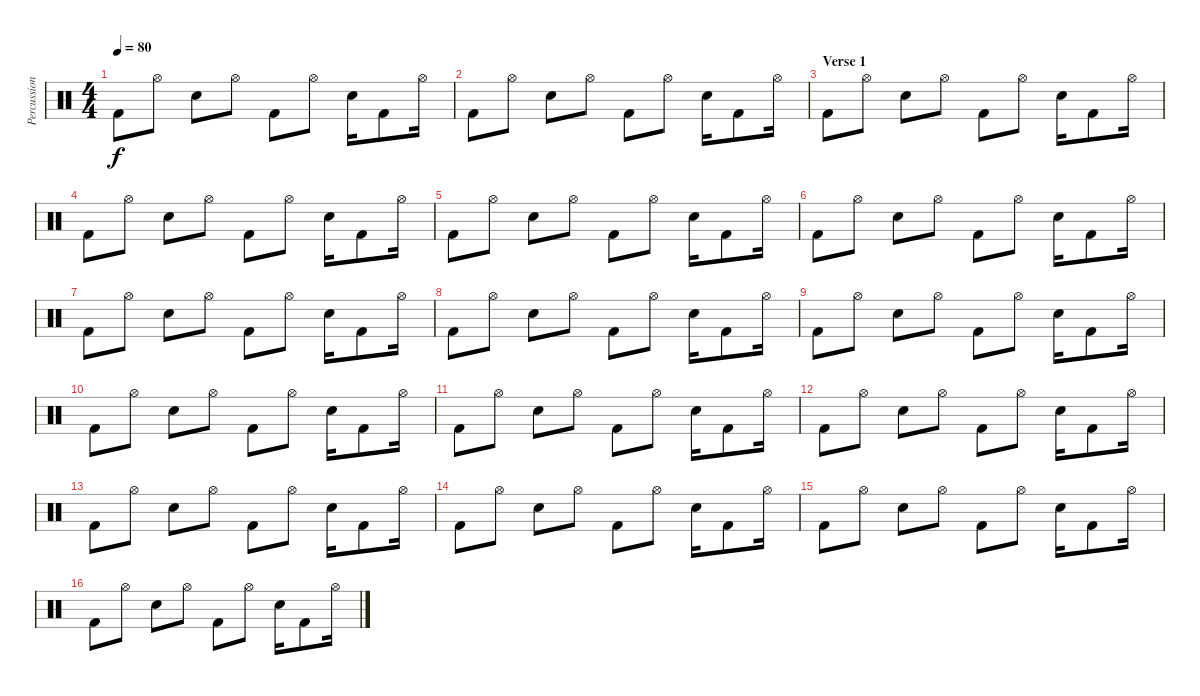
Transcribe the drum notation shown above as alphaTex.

\track ("Percussion" "Percussion") {instrument percussion}
\staff {score}
\articulation defaults
\ts (4 4)
\tempo 80
\clef neutral
\ks c "Kick (hit) 2".8{dy f} "Hi-Hat (open)".8 "Electric Snare (hit)".8 "Hi-Hat (open)".8 "Kick (hit) 2".8 "Hi-Hat (open)".8 "Electric Snare (hit)".16 "Kick (hit) 2".8 "Hi-Hat (open)".16
|
"Kick (hit) 2".8 "Hi-Hat (open)".8 "Electric Snare (hit)".8 "Hi-Hat (open)".8 "Kick (hit) 2".8 "Hi-Hat (open)".8 "Electric Snare (hit)".16 "Kick (hit) 2".8 "Hi-Hat (open)".16 |
\section ("" "Verse 1")
"Kick (hit) 2".8 "Hi-Hat (open)".8 "Electric Snare (hit)".8 "Hi-Hat (open)".8 "Kick (hit) 2".8 "Hi-Hat (open)".8 "Electric Snare (hit)".16 "Kick (hit) 2".8 "Hi-Hat (open)".16 |
"Kick (hit) 2".8 "Hi-Hat (open)".8 "Electric Snare (hit)".8 "Hi-Hat (open)".8 "Kick (hit) 2".8 "Hi-Hat (open)".8 "Electric Snare (hit)".16 "Kick (hit) 2".8 "Hi-Hat (open)".16 |
"Kick (hit) 2".8 "Hi-Hat (open)".8 "Electric Snare (hit)".8 "Hi-Hat (open)".8 "Kick (hit) 2".8 "Hi-Hat (open)".8 "Electric Snare (hit)".16 "Kick (hit) 2".8 "Hi-Hat (open)".16 |
"Kick (hit) 2".8 "Hi-Hat (open)".8 "Electric Snare (hit)".8 "Hi-Hat (open)".8 "Kick (hit) 2".8 "Hi-Hat (open)".8 "Electric Snare (hit)".16 "Kick (hit) 2".8 "Hi-Hat (open)".16 |
"Kick (hit) 2".8 "Hi-Hat (open)".8 "Electric Snare (hit)".8 "Hi-Hat (open)".8 "Kick (hit) 2".8 "Hi-Hat (open)".8 "Electric Snare (hit)".16 "Kick (hit) 2".8 "Hi-Hat (open)".16 |
"Kick (hit) 2".8 "Hi-Hat (open)".8 "Electric Snare (hit)".8 "Hi-Hat (open)".8 "Kick (hit) 2".8 "Hi-Hat (open)".8 "Electric Snare (hit)".16 "Kick (hit) 2".8 "Hi-Hat (open)".16 |
"Kick (hit) 2".8 "Hi-Hat (open)".8 "Electric Snare (hit)".8 "Hi-Hat (open)".8 "Kick (hit) 2".8 "Hi-Hat (open)".8 "Electric Snare (hit)".16 "Kick (hit) 2".8 "Hi-Hat (open)".16 |
"Kick (hit) 2".8 "Hi-Hat (open)".8 "Electric Snare (hit)".8 "Hi-Hat (open)".8 "Kick (hit) 2".8 "Hi-Hat (open)".8 "Electric Snare (hit)".16 "Kick (hit) 2".8 "Hi-Hat (open)".16 |
"Kick (hit) 2".8 "Hi-Hat (open)".8 "Electric Snare (hit)".8 "Hi-Hat (open)".8 "Kick (hit) 2".8 "Hi-Hat (open)".8 "Electric Snare (hit)".16 "Kick (hit) 2".8 "Hi-Hat (open)".16 |
"Kick (hit) 2".8 "Hi-Hat (open)".8 "Electric Snare (hit)".8 "Hi-Hat (open)".8 "Kick (hit) 2".8 "Hi-Hat (open)".8 "Electric Snare (hit)".16 "Kick (hit) 2".8 "Hi-Hat (open)".16 |
"Kick (hit) 2".8 "Hi-Hat (open)".8 "Electric Snare (hit)".8 "Hi-Hat (open)".8 "Kick (hit) 2".8 "Hi-Hat (open)".8 "Electric Snare (hit)".16 "Kick (hit) 2".8 "Hi-Hat (open)".16 |
"Kick (hit) 2".8 "Hi-Hat (open)".8 "Electric Snare (hit)".8 "Hi-Hat (open)".8 "Kick (hit) 2".8 "Hi-Hat (open)".8 "Electric Snare (hit)".16 "Kick (hit) 2".8 "Hi-Hat (open)".16 |
"Kick (hit) 2".8 "Hi-Hat (open)".8 "Electric Snare (hit)".8 "Hi-Hat (open)".8 "Kick (hit) 2".8 "Hi-Hat (open)".8 "Electric Snare (hit)".16 "Kick (hit) 2".8 "Hi-Hat (open)".16 |
"Kick (hit) 2".8 "Hi-Hat (open)".8 "Electric Snare (hit)".8 "Hi-Hat (open)".8 "Kick (hit) 2".8 "Hi-Hat (open)".8 "Electric Snare (hit)".16 "Kick (hit) 2".8 "Hi-Hat (open)".16
